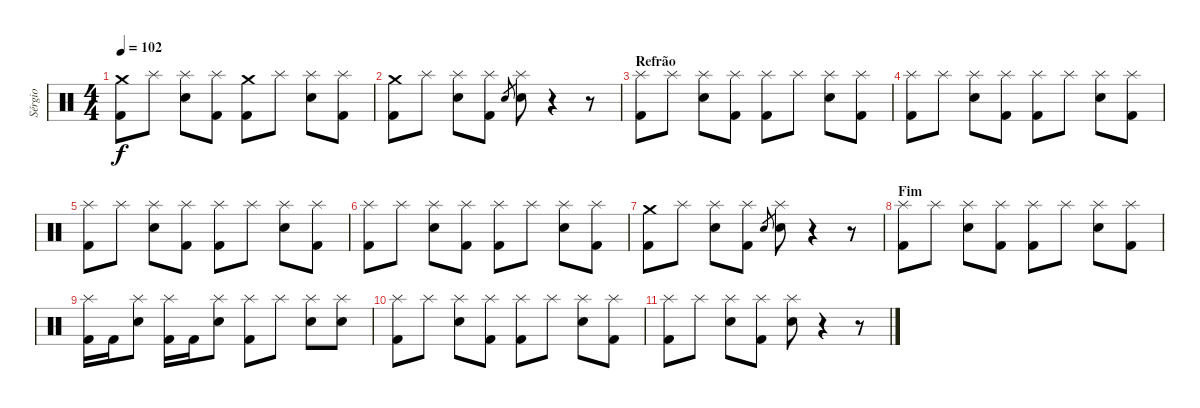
\track ("Sérgio" "Sérgio") {instrument percussion}
\staff {score}
\articulation defaults
\ts (4 4)
\tempo 102
\clef neutral
\ks c
("Crash medium (hit)" "Kick (hit) 2").8{dy f} "Splash (hit)".8 ("Splash (hit)" "Snare (hit) 2").8 ("Splash (hit)" "Kick (hit) 2").8 ("Crash medium (hit)" "Kick (hit) 2").8 "Splash (hit)".8 ("Splash (hit)" "Snare (hit) 2").8 ("Splash (hit)" "Kick (hit) 2").8 |
("Crash medium (hit)" "Kick (hit) 2").8 "Splash (hit)".8 ("Splash (hit)" "Snare (hit) 2").8 ("Splash (hit)" "Kick (hit) 2").8 "Snare (hit) 2".8{gr} ("Splash (hit)" "Snare (hit) 2").8 r.4 r.8 |
\section ("" "Refrão")
("Splash (hit)" "Kick (hit) 2").8 "Splash (hit)".8 ("Splash (hit)" "Snare (hit) 2").8 ("Splash (hit)" "Kick (hit) 2").8 ("Splash (hit)" "Kick (hit) 2").8 "Splash (hit)".8 ("Splash (hit)" "Snare (hit) 2").8 ("Splash (hit)" "Kick (hit) 2").8 |
("Splash (hit)" "Kick (hit) 2").8 "Splash (hit)".8 ("Splash (hit)" "Snare (hit) 2").8 ("Splash (hit)" "Kick (hit) 2").8 ("Splash (hit)" "Kick (hit) 2").8 "Splash (hit)".8 ("Splash (hit)" "Snare (hit) 2").8 ("Splash (hit)" "Kick (hit) 2").8 |
("Splash (hit)" "Kick (hit) 2").8 "Splash (hit)".8 ("Splash (hit)" "Snare (hit) 2").8 ("Splash (hit)" "Kick (hit) 2").8 ("Splash (hit)" "Kick (hit) 2").8 "Splash (hit)".8 ("Splash (hit)" "Snare (hit) 2").8 ("Splash (hit)" "Kick (hit) 2").8 |
("Splash (hit)" "Kick (hit) 2").8 "Splash (hit)".8 ("Splash (hit)" "Snare (hit) 2").8 ("Splash (hit)" "Kick (hit) 2").8 ("Splash (hit)" "Kick (hit) 2").8 "Splash (hit)".8 ("Splash (hit)" "Snare (hit) 2").8 ("Splash (hit)" "Kick (hit) 2").8 |
("Crash medium (hit)" "Kick (hit) 2").8 "Splash (hit)".8 ("Splash (hit)" "Snare (hit) 2").8 ("Splash (hit)" "Kick (hit) 2").8 "Snare (hit) 2".8{gr} ("Splash (hit)" "Snare (hit) 2").8 r.4 r.8 |
\section ("" "Fim")
("Splash (hit)" "Kick (hit) 2").8 "Splash (hit)".8 ("Splash (hit)" "Snare (hit) 2").8 ("Splash (hit)" "Kick (hit) 2").8 ("Splash (hit)" "Kick (hit) 2").8 "Splash (hit)".8 ("Splash (hit)" "Snare (hit) 2").8 ("Splash (hit)" "Kick (hit) 2").8 |
("Splash (hit)" "Kick (hit) 2").16 "Kick (hit) 2".16 ("Splash (hit)" "Snare (hit) 2").8 ("Splash (hit)" "Kick (hit) 2").16 "Kick (hit) 2".16 ("Splash (hit)" "Snare (hit) 2").8 ("Splash (hit)" "Kick (hit) 2").8 "Splash (hit)".8 ("Splash (hit)" "Snare (hit) 2").8 ("Splash (hit)" "Snare (hit) 2").8 |
("Splash (hit)" "Kick (hit) 2").8 "Splash (hit)".8 ("Splash (hit)" "Snare (hit) 2").8 ("Splash (hit)" "Kick (hit) 2").8 ("Splash (hit)" "Kick (hit) 2").8 "Splash (hit)".8 ("Splash (hit)" "Snare (hit) 2").8 ("Splash (hit)" "Kick (hit) 2").8 |
("Splash (hit)" "Kick (hit) 2").8 "Splash (hit)".8 ("Splash (hit)" "Snare (hit) 2").8 ("Splash (hit)" "Kick (hit) 2").8 ("Splash (hit)" "Snare (hit) 2").8 r.4 r.8
